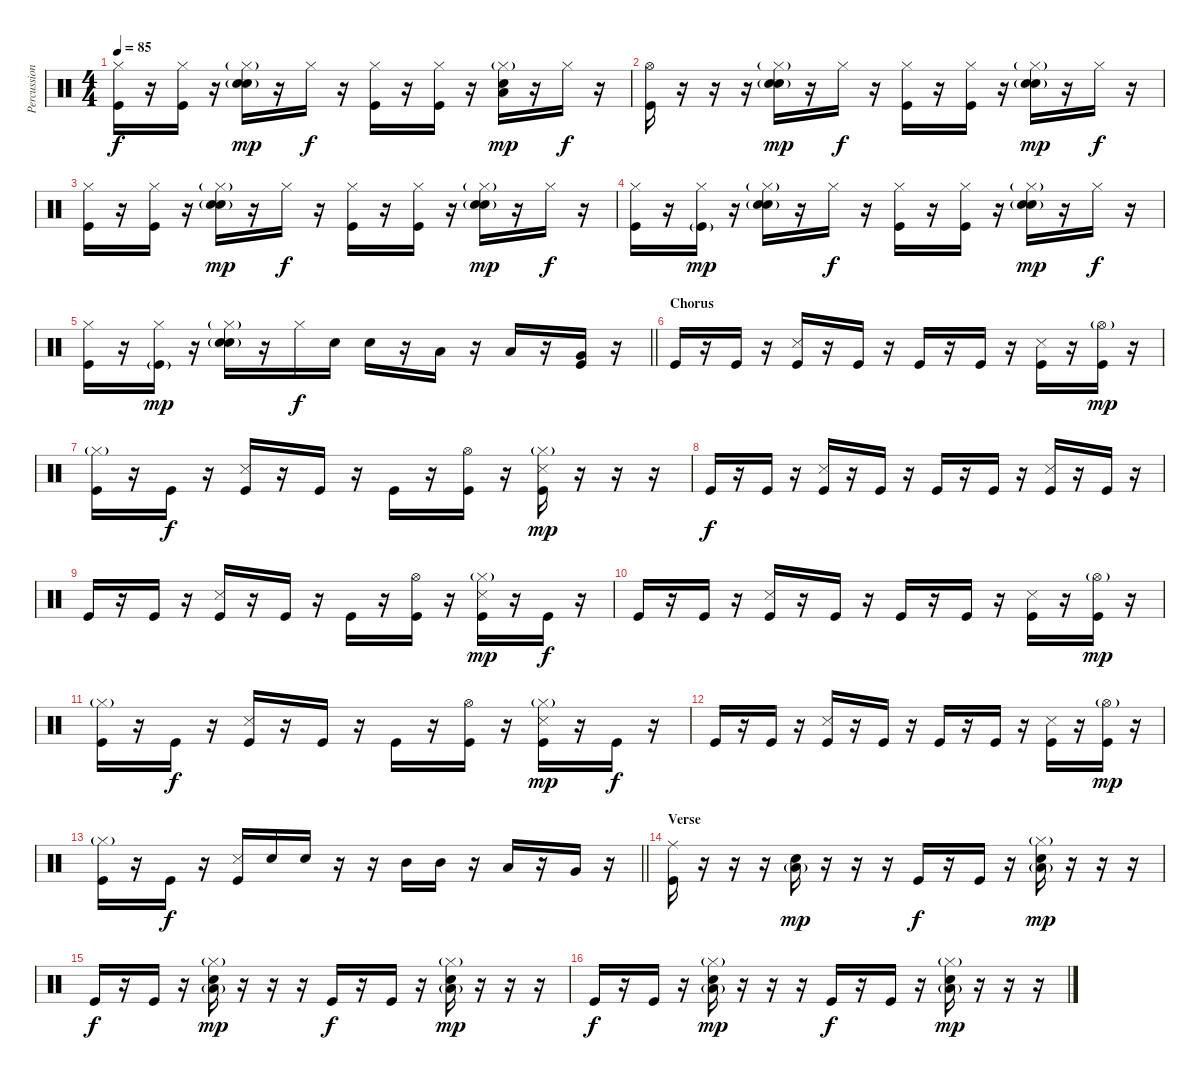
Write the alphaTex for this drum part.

\track ("Percussion" "Percussion") {instrument percussion}
\staff {score}
\articulation defaults
\ts (4 4)
\tempo 85
\clef neutral
\ks c
("Hi-Hat (closed)" "Kick (hit)").16{dy f} r.16 ("Hi-Hat (closed)" "Kick (hit)").16 r.16 ("Hi-Hat (closed)"{g} "Hand Clap (hit)" "Snare (hit) 2"{g}).16{dy mp} r.16 "Hi-Hat (closed)".16{dy f} r.16 ("Hi-Hat (closed)" "Kick (hit)").16 r.16 ("Hi-Hat (closed)" "Kick (hit)").16 r.16 ("Hi-Hat (closed)"{g} "Low Tom (hit)" "Snare (hit) 2").16{dy mp} r.16 "Hi-Hat (closed)".16{dy f} r.16 |
("Hi-Hat (open)" "Kick (hit)").16 r.16 r.16 r.16 ("Hi-Hat (closed)"{g} "Hand Clap (hit)" "Snare (hit) 2"{g}).16{dy mp} r.16 "Hi-Hat (closed)".16{dy f} r.16 ("Hi-Hat (closed)" "Kick (hit)").16 r.16 ("Hi-Hat (closed)" "Kick (hit)").16 r.16 ("Hi-Hat (closed)"{g} "Hand Clap (hit)" "Snare (hit) 2"{g}).16{dy mp} r.16 "Hi-Hat (closed)".16{dy f} r.16 |
("Hi-Hat (closed)" "Kick (hit)").16 r.16 ("Hi-Hat (closed)" "Kick (hit)").16 r.16 ("Hi-Hat (closed)"{g} "Hand Clap (hit)" "Snare (hit) 2"{g}).16{dy mp} r.16 "Hi-Hat (closed)".16{dy f} r.16 ("Hi-Hat (closed)" "Kick (hit)").16 r.16 ("Hi-Hat (closed)" "Kick (hit)").16 r.16 ("Hi-Hat (closed)"{g} "Hand Clap (hit)" "Snare (hit) 2"{g}).16{dy mp} r.16 "Hi-Hat (closed)".16{dy f} r.16 |
("Hi-Hat (closed)" "Kick (hit)").16 r.16 ("Hi-Hat (closed)" "Kick (hit)"{g}).16{dy mp} r.16 ("Hi-Hat (closed)"{g} "Hand Clap (hit)" "Snare (hit) 2"{g}).16 r.16 "Hi-Hat (closed)".16{dy f} r.16 ("Hi-Hat (closed)" "Kick (hit)").16 r.16 ("Hi-Hat (closed)" "Kick (hit)").16 r.16 ("Hi-Hat (closed)"{g} "Hand Clap (hit)" "Snare (hit) 2"{g}).16{dy mp} r.16 "Hi-Hat (closed)".16{dy f} r.16 |
\barLineRight lightlight
("Hi-Hat (closed)" "Kick (hit)").16 r.16 ("Hi-Hat (closed)" "Kick (hit)"{g}).16{dy mp} r.16 ("Hi-Hat (closed)"{g} "Hand Clap (hit)" "Snare (hit) 2"{g}).16 r.16 "Hi-Hat (closed)".16{dy f} "Snare (hit) 2".16 "Snare (hit) 2".16 r.16 "Low Tom (hit)".16 r.16 "Low Tom (hit)".16 r.16 ("Very Low Tom (hit)" "Kick (hit)").16 r.16 |
\section ("" "Chorus")
"Kick (hit)".16 r.16 "Kick (hit)".16 r.16 ("Snare (side stick) 3" "Kick (hit)").16 r.16 "Kick (hit)".16 r.16 "Kick (hit)".16 r.16 "Kick (hit)".16 r.16 ("Snare (side stick) 3" "Kick (hit)").16 r.16 ("Hi-Hat (open)"{g} "Kick (hit)").16{dy mp} r.16 |
("Hi-Hat (closed)"{g} "Kick (hit)").16 r.16 "Kick (hit)".16{dy f} r.16 ("Snare (side stick) 3" "Kick (hit)").16 r.16 "Kick (hit)".16 r.16 "Kick (hit)".16 r.16 ("Hi-Hat (open)" "Kick (hit)").16 r.16 ("Hi-Hat (closed)"{g} "Snare (side stick) 3" "Kick (hit)").16{dy mp} r.16 r.16 r.16 |
"Kick (hit)".16{dy f} r.16 "Kick (hit)".16 r.16 ("Snare (side stick) 3" "Kick (hit)").16 r.16 "Kick (hit)".16 r.16 "Kick (hit)".16 r.16 "Kick (hit)".16 r.16 ("Snare (side stick) 3" "Kick (hit)").16 r.16 "Kick (hit)".16 r.16 |
"Kick (hit)".16 r.16 "Kick (hit)".16 r.16 ("Snare (side stick) 3" "Kick (hit)").16 r.16 "Kick (hit)".16 r.16 "Kick (hit)".16 r.16 ("Hi-Hat (open)" "Kick (hit)").16 r.16 ("Hi-Hat (closed)"{g} "Snare (side stick) 3" "Kick (hit)").16{dy mp} r.16 "Kick (hit)".16{dy f} r.16 |
"Kick (hit)".16 r.16 "Kick (hit)".16 r.16 ("Snare (side stick) 3" "Kick (hit)").16 r.16 "Kick (hit)".16 r.16 "Kick (hit)".16 r.16 "Kick (hit)".16 r.16 ("Snare (side stick) 3" "Kick (hit)").16 r.16 ("Hi-Hat (open)"{g} "Kick (hit)").16{dy mp} r.16 |
("Hi-Hat (closed)"{g} "Kick (hit)").16 r.16 "Kick (hit)".16{dy f} r.16 ("Snare (side stick) 3" "Kick (hit)").16 r.16 "Kick (hit)".16 r.16 "Kick (hit)".16 r.16 ("Hi-Hat (open)" "Kick (hit)").16 r.16 ("Hi-Hat (closed)"{g} "Snare (side stick) 3" "Kick (hit)").16{dy mp} r.16 "Kick (hit)".16{dy f} r.16 |
"Kick (hit)".16 r.16 "Kick (hit)".16 r.16 ("Snare (side stick) 3" "Kick (hit)").16 r.16 "Kick (hit)".16 r.16 "Kick (hit)".16 r.16 "Kick (hit)".16 r.16 ("Snare (side stick) 3" "Kick (hit)").16 r.16 ("Hi-Hat (open)"{g} "Kick (hit)").16{dy mp} r.16 |
\barLineRight lightlight
("Hi-Hat (closed)"{g} "Kick (hit)").16 r.16 "Kick (hit)".16{dy f} r.16 ("Snare (side stick) 3" "Kick (hit)").16 "Snare (hit) 2".16 "Snare (hit) 2".16 r.16 r.16 "Mid Tom (hit)".16 "Mid Tom (hit)".16 r.16 "Low Tom (hit)".16 r.16 "Very Low Tom (hit)".16 r.16 |
\section ("" "Verse")
("Ride (middle)" "Kick (hit)").16 r.16 r.16 r.16 ("Low Tom (hit)"{g} "Snare (hit) 2").16{dy mp} r.16 r.16 r.16 "Kick (hit)".16{dy f} r.16 "Kick (hit)".16 r.16 ("Hi-Hat (closed)"{g} "Low Tom (hit)"{g} "Snare (hit) 2").16{dy mp} r.16 r.16 r.16 |
"Kick (hit)".16{dy f} r.16 "Kick (hit)".16 r.16 ("Hi-Hat (closed)"{g} "Low Tom (hit)"{g} "Snare (hit) 2").16{dy mp} r.16 r.16 r.16 "Kick (hit)".16{dy f} r.16 "Kick (hit)".16 r.16 ("Hi-Hat (closed)"{g} "Low Tom (hit)"{g} "Snare (hit) 2").16{dy mp} r.16 r.16 r.16 |
"Kick (hit)".16{dy f} r.16 "Kick (hit)".16 r.16 ("Hi-Hat (closed)"{g} "Low Tom (hit)"{g} "Snare (hit) 2").16{dy mp} r.16 r.16 r.16 "Kick (hit)".16{dy f} r.16 "Kick (hit)".16 r.16 ("Hi-Hat (closed)"{g} "Low Tom (hit)"{g} "Snare (hit) 2").16{dy mp} r.16 r.16 r.16
